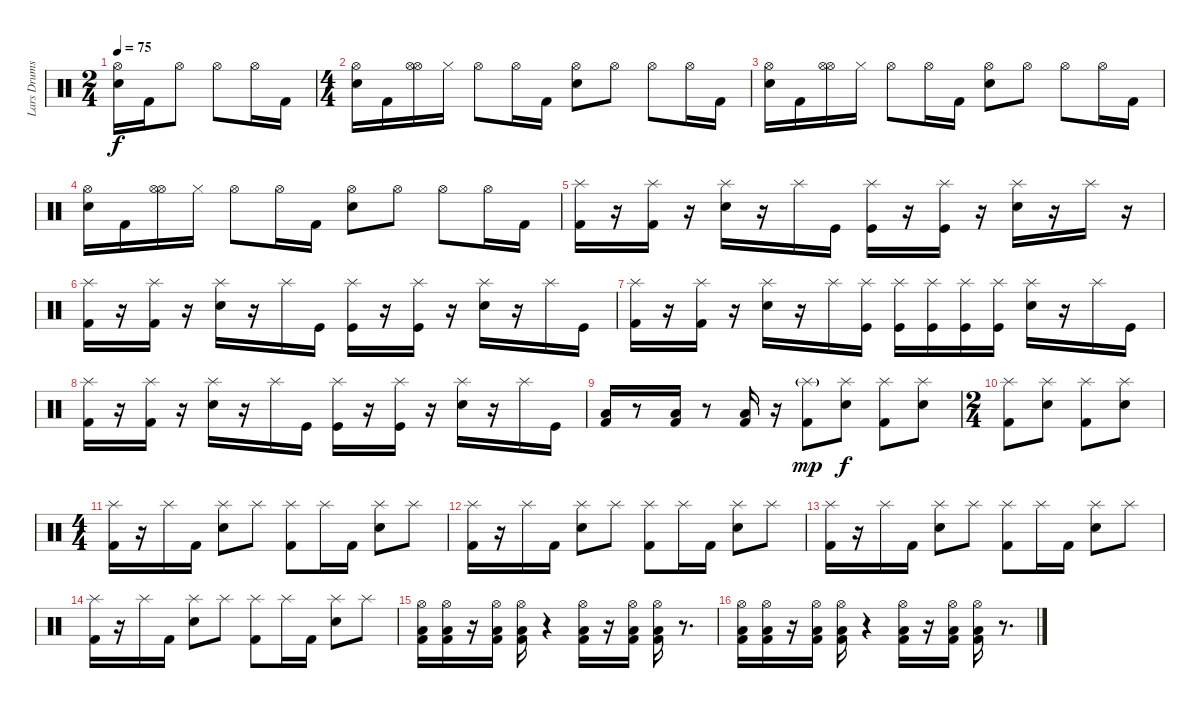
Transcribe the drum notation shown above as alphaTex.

\track ("Lars Drums" "Lars Drums") {instrument percussion}
\staff {score}
\articulation defaults
\ts (2 4)
\tempo 75
\clef neutral
\ks c
("Hi-Hat (open)" "Snare (hit) 2").16{dy f} "Kick (hit) 2".16 "Hi-Hat (open)".8 "Hi-Hat (open)".8 "Hi-Hat (open)".16 "Kick (hit) 2".16 |
\ts (4 4)
("Hi-Hat (open)" "Snare (hit) 2").16 "Kick (hit) 2".16 ("Hi-Hat (open)" "Hi-Hat (open)").16 "Hi-Hat (closed)".16 "Hi-Hat (open)".8 "Hi-Hat (open)".16 "Kick (hit) 2".16 ("Hi-Hat (open)" "Snare (hit) 2").8 "Hi-Hat (open)".8 "Hi-Hat (open)".8 "Hi-Hat (open)".16 "Kick (hit) 2".16 |
("Hi-Hat (open)" "Snare (hit) 2").16 "Kick (hit) 2".16 ("Hi-Hat (open)" "Hi-Hat (open)").16 "Hi-Hat (closed)".16 "Hi-Hat (open)".8 "Hi-Hat (open)".16 "Kick (hit) 2".16 ("Hi-Hat (open)" "Snare (hit) 2").8 "Hi-Hat (open)".8 "Hi-Hat (open)".8 "Hi-Hat (open)".16 "Kick (hit) 2".16 |
("Hi-Hat (open)" "Snare (hit) 2").16 "Kick (hit) 2".16 ("Hi-Hat (open)" "Hi-Hat (open)").16 "Hi-Hat (closed)".16 "Hi-Hat (open)".8 "Hi-Hat (open)".16 "Kick (hit) 2".16 ("Hi-Hat (open)" "Snare (hit) 2").8 "Hi-Hat (open)".8 "Hi-Hat (open)".8 "Hi-Hat (open)".16 "Kick (hit) 2".16 |
("Splash (hit)" "Kick (hit) 2").16 r.16 ("Splash (hit)" "Kick (hit) 2").16 r.16 ("Splash (hit)" "Snare (hit) 2").16 r.16 "Splash (hit)".16 "Kick (hit)".16 ("Splash (hit)" "Kick (hit)").16 r.16 ("Splash (hit)" "Kick (hit)").16 r.16 ("Splash (hit)" "Snare (hit) 2").16 r.16 "Splash (hit)".16 r.16 |
("Splash (hit)" "Kick (hit) 2").16 r.16 ("Splash (hit)" "Kick (hit) 2").16 r.16 ("Splash (hit)" "Snare (hit) 2").16 r.16 "Splash (hit)".16 "Kick (hit)".16 ("Splash (hit)" "Kick (hit)").16 r.16 ("Splash (hit)" "Kick (hit)").16 r.16 ("Splash (hit)" "Snare (hit) 2").16 r.16 "Splash (hit)".16 "Kick (hit)".16 |
("Splash (hit)" "Kick (hit) 2").16 r.16 ("Splash (hit)" "Kick (hit) 2").16 r.16 ("Splash (hit)" "Snare (hit) 2").16 r.16 "Splash (hit)".16 ("Splash (hit)" "Kick (hit)").16 ("Splash (hit)" "Kick (hit)").16 ("Splash (hit)" "Kick (hit)").16 ("Splash (hit)" "Kick (hit)").16 ("Splash (hit)" "Kick (hit)").16 ("Splash (hit)" "Snare (hit) 2").16 r.16 "Splash (hit)".16 "Kick (hit)".16 |
("Splash (hit)" "Kick (hit) 2").16 r.16 ("Splash (hit)" "Kick (hit) 2").16 r.16 ("Splash (hit)" "Snare (hit) 2").16 r.16 "Splash (hit)".16 "Kick (hit)".16 ("Splash (hit)" "Kick (hit)").16 r.16 ("Splash (hit)" "Kick (hit)").16 r.16 ("Splash (hit)" "Snare (hit) 2").16 r.16 "Splash (hit)".16 "Kick (hit)".16 |
("Low Floor Tom (hit)" "Kick (hit) 2").16 r.8 ("Low Floor Tom (hit)" "Kick (hit) 2").16 r.8 ("Low Floor Tom (hit)" "Kick (hit) 2").16 r.16 ("Splash (hit)"{g} "Kick (hit) 2").8{dy mp} ("Splash (hit)" "Snare (hit) 2").8{dy f} ("Splash (hit)" "Kick (hit) 2").8 ("Splash (hit)" "Snare (hit) 2").8 |
\ts (2 4)
("Splash (hit)" "Kick (hit) 2").8 ("Splash (hit)" "Snare (hit) 2").8 ("Splash (hit)" "Kick (hit) 2").8 ("Splash (hit)" "Snare (hit) 2").8 |
\ts (4 4)
("Splash (hit)" "Kick (hit) 2").16 r.16 "Splash (hit)".16 "Kick (hit) 2".16 ("Splash (hit)" "Snare (hit) 2").8 "Splash (hit)".8 ("Splash (hit)" "Kick (hit) 2").8 "Splash (hit)".16 "Kick (hit) 2".16 ("Splash (hit)" "Snare (hit) 2").8 "Splash (hit)".8 |
("Splash (hit)" "Kick (hit) 2").16 r.16 "Splash (hit)".16 "Kick (hit) 2".16 ("Splash (hit)" "Snare (hit) 2").8 "Splash (hit)".8 ("Splash (hit)" "Kick (hit) 2").8 "Splash (hit)".16 "Kick (hit) 2".16 ("Splash (hit)" "Snare (hit) 2").8 "Splash (hit)".8 |
("Splash (hit)" "Kick (hit) 2").16 r.16 "Splash (hit)".16 "Kick (hit) 2".16 ("Splash (hit)" "Snare (hit) 2").8 "Splash (hit)".8 ("Splash (hit)" "Kick (hit) 2").8 "Splash (hit)".16 "Kick (hit) 2".16 ("Splash (hit)" "Snare (hit) 2").8 "Splash (hit)".8 |
("Splash (hit)" "Kick (hit) 2").16 r.16 "Splash (hit)".16 "Kick (hit) 2".16 ("Splash (hit)" "Snare (hit) 2").8 "Splash (hit)".8 ("Splash (hit)" "Kick (hit) 2").8 "Splash (hit)".16 "Kick (hit) 2".16 ("Splash (hit)" "Snare (hit) 2").8 "Splash (hit)".8 |
("Hi-Hat (open)" "Low Floor Tom (hit)" "Kick (hit) 2").16 ("Hi-Hat (open)" "Low Floor Tom (hit)" "Kick (hit) 2").16 r.16 ("Hi-Hat (open)" "Low Floor Tom (hit)" "Kick (hit) 2").16 ("Hi-Hat (open)" "Low Floor Tom (hit)" "Kick (hit) 2").16 r.4 ("Hi-Hat (open)" "Low Floor Tom (hit)" "Kick (hit) 2").16 r.16 ("Hi-Hat (open)" "Low Floor Tom (hit)" "Kick (hit) 2").16 ("Hi-Hat (open)" "Low Floor Tom (hit)" "Kick (hit) 2").16 r.8{d} |
("Hi-Hat (open)" "Low Floor Tom (hit)" "Kick (hit) 2").16 ("Hi-Hat (open)" "Low Floor Tom (hit)" "Kick (hit) 2").16 r.16 ("Hi-Hat (open)" "Low Floor Tom (hit)" "Kick (hit) 2").16 ("Hi-Hat (open)" "Low Floor Tom (hit)" "Kick (hit) 2").16 r.4 ("Hi-Hat (open)" "Low Floor Tom (hit)" "Kick (hit) 2").16 r.16 ("Hi-Hat (open)" "Low Floor Tom (hit)" "Kick (hit) 2").16 ("Hi-Hat (open)" "Low Floor Tom (hit)" "Kick (hit) 2").16 r.8{d}
